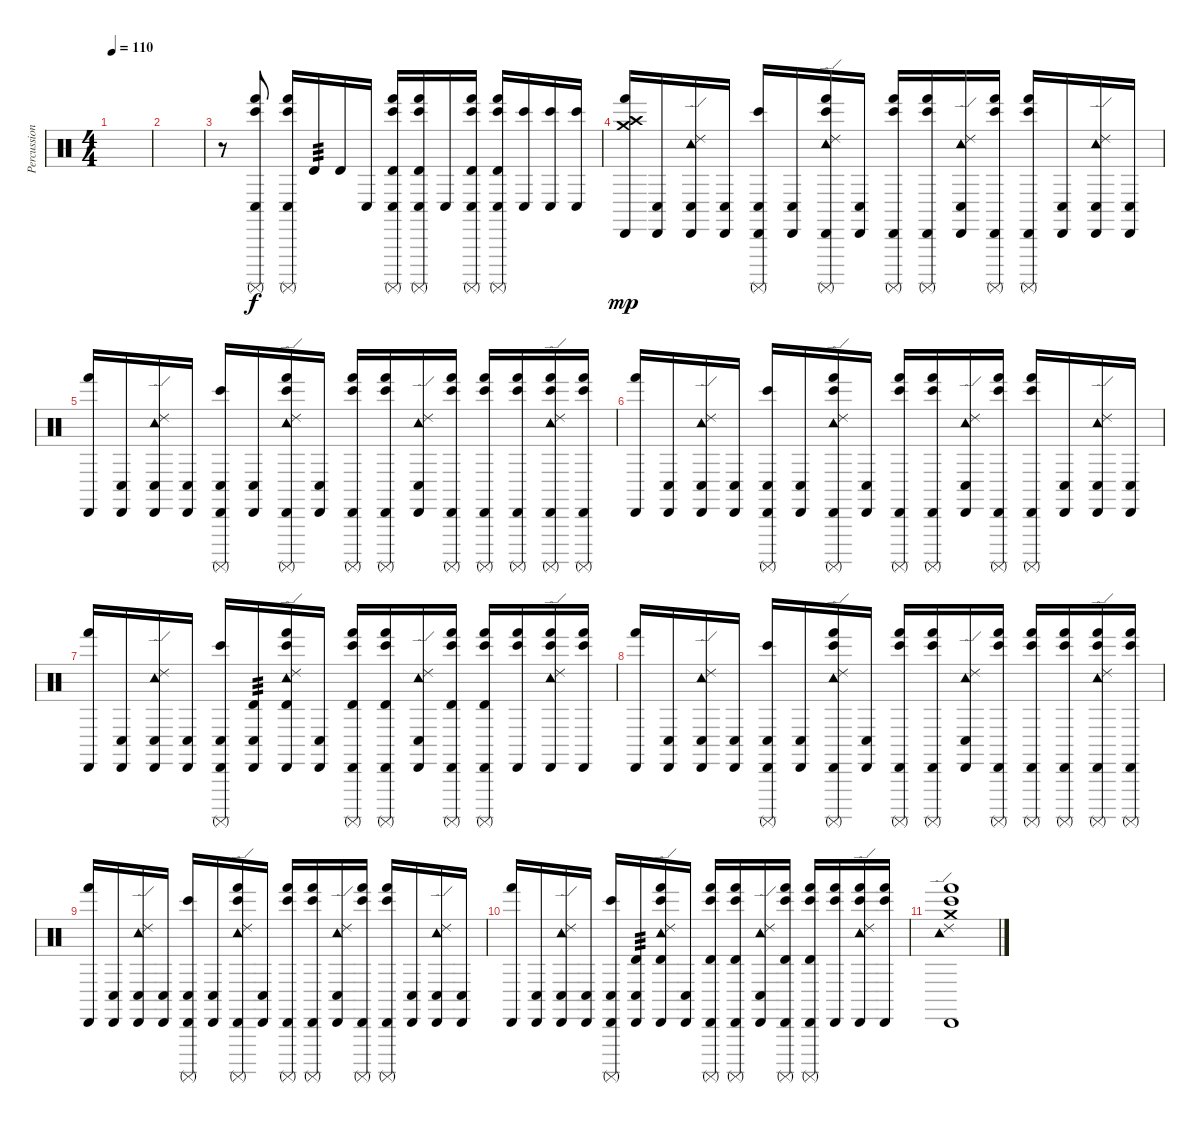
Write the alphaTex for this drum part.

\track ("Percussion" "Percussion") {instrument percussion}
\staff {score}
\articulation defaults
\ts (4 4)
\tempo 110
\clef neutral
\ks c
|
|
r.8 ("Conga low (hit)" "Surdo (mute)" "Bongo High (hit)" "Hand (hit)").8 ("Conga low (hit)" "Surdo (mute)" "Bongo High (hit)" "Hand (hit)").16 "Timbale high (hit)".16{tp 3} "Timbale high (hit)".16 "Conga low (hit)".16 ("Conga low (hit)" "Surdo (mute)" "Timbale high (hit)" "Bongo High (hit)" "Hand (hit)").16 ("Conga low (hit)" "Surdo (mute)" "Timbale high (hit)" "Bongo High (hit)" "Hand (hit)").16 "Conga low (hit)".16 ("Conga low (hit)" "Surdo (mute)" "Timbale high (hit)" "Bongo High (hit)" "Hand (hit)").16 ("Conga low (hit)" "Surdo (mute)" "Timbale high (hit)" "Bongo High (hit)" "Hand (hit)").16 ("Bongo High (hit)" "Conga low (hit)").16 ("Bongo High (hit)" "Conga low (hit)").16 ("Bongo High (hit)" "Conga low (hit)").16 |
("Crash high (hit)" "Crash medium (hit)" "Cabasa (hit)" "Hand (hit)").16{dy mp} ("Cabasa (hit)" "Conga low (hit)").16 ("Tambourine (hit)" "Ride (edge) 2" "Cabasa (hit)" "Conga low (hit)").16 ("Cabasa (hit)" "Conga low (hit)").16 ("Cabasa (hit)" "Surdo (mute)" "Bongo High (hit)" "Conga low (hit)").16 ("Cabasa (hit)" "Conga low (hit)").16 ("Tambourine (hit)" "Ride (edge) 2" "Cabasa (hit)" "Surdo (mute)" "Bongo High (hit)" "Hand (hit)").16 ("Cabasa (hit)" "Conga low (hit)").16 ("Cabasa (hit)" "Surdo (mute)" "Bongo High (hit)" "Hand (hit)").16 ("Cabasa (hit)" "Surdo (mute)" "Bongo High (hit)" "Hand (hit)").16 ("Tambourine (hit)" "Ride (edge) 2" "Cabasa (hit)" "Conga low (hit)").16 ("Cabasa (hit)" "Surdo (mute)" "Bongo High (hit)" "Hand (hit)").16 ("Cabasa (hit)" "Surdo (mute)" "Bongo High (hit)" "Hand (hit)").16 ("Cabasa (hit)" "Conga low (hit)").16 ("Tambourine (hit)" "Ride (edge) 2" "Cabasa (hit)" "Conga low (hit)").16 ("Cabasa (hit)" "Conga low (hit)").16 |
("Cabasa (hit)" "Hand (hit)").16 ("Cabasa (hit)" "Conga low (hit)").16 ("Tambourine (hit)" "Ride (edge) 2" "Cabasa (hit)" "Conga low (hit)").16 ("Cabasa (hit)" "Conga low (hit)").16 ("Cabasa (hit)" "Surdo (mute)" "Bongo High (hit)" "Conga low (hit)").16 ("Cabasa (hit)" "Conga low (hit)").16 ("Tambourine (hit)" "Ride (edge) 2" "Cabasa (hit)" "Surdo (mute)" "Bongo High (hit)" "Hand (hit)").16 ("Cabasa (hit)" "Conga low (hit)").16 ("Cabasa (hit)" "Surdo (mute)" "Bongo High (hit)" "Hand (hit)").16 ("Cabasa (hit)" "Surdo (mute)" "Bongo High (hit)" "Hand (hit)").16 ("Tambourine (hit)" "Ride (edge) 2" "Cabasa (hit)" "Conga low (hit)").16 ("Cabasa (hit)" "Surdo (mute)" "Bongo High (hit)" "Hand (hit)").16 ("Cabasa (hit)" "Surdo (mute)" "Bongo High (hit)" "Hand (hit)").16 ("Cabasa (hit)" "Surdo (mute)" "Bongo High (hit)" "Hand (hit)").16 ("Tambourine (hit)" "Ride (edge) 2" "Cabasa (hit)" "Surdo (mute)" "Bongo High (hit)" "Hand (hit)").16 ("Cabasa (hit)" "Surdo (mute)" "Bongo High (hit)" "Hand (hit)").16 |
("Cabasa (hit)" "Hand (hit)").16 ("Cabasa (hit)" "Conga low (hit)").16 ("Tambourine (hit)" "Ride (edge) 2" "Cabasa (hit)" "Conga low (hit)").16 ("Cabasa (hit)" "Conga low (hit)").16 ("Cabasa (hit)" "Surdo (mute)" "Bongo High (hit)" "Conga low (hit)").16 ("Cabasa (hit)" "Conga low (hit)").16 ("Tambourine (hit)" "Ride (edge) 2" "Cabasa (hit)" "Surdo (mute)" "Bongo High (hit)" "Hand (hit)").16 ("Cabasa (hit)" "Conga low (hit)").16 ("Cabasa (hit)" "Surdo (mute)" "Bongo High (hit)" "Hand (hit)").16 ("Cabasa (hit)" "Surdo (mute)" "Bongo High (hit)" "Hand (hit)").16 ("Tambourine (hit)" "Ride (edge) 2" "Cabasa (hit)" "Conga low (hit)").16 ("Cabasa (hit)" "Surdo (mute)" "Bongo High (hit)" "Hand (hit)").16 ("Cabasa (hit)" "Surdo (mute)" "Bongo High (hit)" "Hand (hit)").16 ("Cabasa (hit)" "Conga low (hit)").16 ("Tambourine (hit)" "Ride (edge) 2" "Cabasa (hit)" "Conga low (hit)").16 ("Cabasa (hit)" "Conga low (hit)").16 |
("Cabasa (hit)" "Hand (hit)").16 ("Cabasa (hit)" "Conga low (hit)").16 ("Tambourine (hit)" "Ride (edge) 2" "Cabasa (hit)" "Conga low (hit)").16 ("Cabasa (hit)" "Conga low (hit)").16 ("Cabasa (hit)" "Surdo (mute)" "Bongo High (hit)" "Conga low (hit)").16 ("Cabasa (hit)" "Timbale high (hit)" "Conga low (hit)").16{tp 3} ("Tambourine (hit)" "Ride (edge) 2" "Cabasa (hit)" "Timbale high (hit)" "Bongo High (hit)" "Hand (hit)").16 ("Cabasa (hit)" "Conga low (hit)").16 ("Surdo (mute)" "Cabasa (hit)" "Timbale high (hit)" "Bongo High (hit)" "Hand (hit)").16 ("Surdo (mute)" "Cabasa (hit)" "Timbale high (hit)" "Bongo High (hit)" "Hand (hit)").16 ("Tambourine (hit)" "Ride (edge) 2" "Cabasa (hit)" "Conga low (hit)").16 ("Surdo (mute)" "Cabasa (hit)" "Timbale high (hit)" "Bongo High (hit)" "Hand (hit)").16 ("Surdo (mute)" "Cabasa (hit)" "Timbale high (hit)" "Bongo High (hit)" "Hand (hit)").16 ("Cabasa (hit)" "Bongo High (hit)" "Hand (hit)").16 ("Tambourine (hit)" "Ride (edge) 2" "Cabasa (hit)" "Bongo High (hit)" "Hand (hit)").16 ("Cabasa (hit)" "Bongo High (hit)" "Hand (hit)").16 |
("Cabasa (hit)" "Hand (hit)").16 ("Cabasa (hit)" "Conga low (hit)").16 ("Tambourine (hit)" "Ride (edge) 2" "Cabasa (hit)" "Conga low (hit)").16 ("Cabasa (hit)" "Conga low (hit)").16 ("Cabasa (hit)" "Surdo (mute)" "Bongo High (hit)" "Conga low (hit)").16 ("Cabasa (hit)" "Conga low (hit)").16 ("Tambourine (hit)" "Ride (edge) 2" "Cabasa (hit)" "Surdo (mute)" "Bongo High (hit)" "Hand (hit)").16 ("Cabasa (hit)" "Conga low (hit)").16 ("Cabasa (hit)" "Surdo (mute)" "Bongo High (hit)" "Hand (hit)").16 ("Cabasa (hit)" "Surdo (mute)" "Bongo High (hit)" "Hand (hit)").16 ("Tambourine (hit)" "Ride (edge) 2" "Cabasa (hit)" "Conga low (hit)").16 ("Cabasa (hit)" "Surdo (mute)" "Bongo High (hit)" "Hand (hit)").16 ("Cabasa (hit)" "Surdo (mute)" "Bongo High (hit)" "Hand (hit)").16 ("Cabasa (hit)" "Surdo (mute)" "Bongo High (hit)" "Hand (hit)").16 ("Tambourine (hit)" "Ride (edge) 2" "Cabasa (hit)" "Surdo (mute)" "Bongo High (hit)" "Hand (hit)").16 ("Cabasa (hit)" "Surdo (mute)" "Bongo High (hit)" "Hand (hit)").16 |
("Cabasa (hit)" "Hand (hit)").16 ("Cabasa (hit)" "Conga low (hit)").16 ("Tambourine (hit)" "Ride (edge) 2" "Cabasa (hit)" "Conga low (hit)").16 ("Cabasa (hit)" "Conga low (hit)").16 ("Cabasa (hit)" "Surdo (mute)" "Bongo High (hit)" "Conga low (hit)").16 ("Cabasa (hit)" "Conga low (hit)").16 ("Tambourine (hit)" "Ride (edge) 2" "Cabasa (hit)" "Surdo (mute)" "Bongo High (hit)" "Hand (hit)").16 ("Cabasa (hit)" "Conga low (hit)").16 ("Cabasa (hit)" "Surdo (mute)" "Bongo High (hit)" "Hand (hit)").16 ("Cabasa (hit)" "Surdo (mute)" "Bongo High (hit)" "Hand (hit)").16 ("Tambourine (hit)" "Ride (edge) 2" "Cabasa (hit)" "Conga low (hit)").16 ("Cabasa (hit)" "Surdo (mute)" "Bongo High (hit)" "Hand (hit)").16 ("Cabasa (hit)" "Surdo (mute)" "Bongo High (hit)" "Hand (hit)").16 ("Cabasa (hit)" "Conga low (hit)").16 ("Tambourine (hit)" "Ride (edge) 2" "Cabasa (hit)" "Conga low (hit)").16 ("Cabasa (hit)" "Conga low (hit)").16 |
("Cabasa (hit)" "Hand (hit)").16 ("Cabasa (hit)" "Conga low (hit)").16 ("Tambourine (hit)" "Ride (edge) 2" "Cabasa (hit)" "Conga low (hit)").16 ("Cabasa (hit)" "Conga low (hit)").16 ("Cabasa (hit)" "Surdo (mute)" "Bongo High (hit)" "Conga low (hit)").16 ("Cabasa (hit)" "Timbale high (hit)" "Conga low (hit)").16{tp 3} ("Tambourine (hit)" "Ride (edge) 2" "Cabasa (hit)" "Timbale high (hit)" "Bongo High (hit)" "Hand (hit)").16 ("Cabasa (hit)" "Conga low (hit)").16 ("Surdo (mute)" "Cabasa (hit)" "Timbale high (hit)" "Bongo High (hit)" "Hand (hit)").16 ("Surdo (mute)" "Cabasa (hit)" "Timbale high (hit)" "Bongo High (hit)" "Hand (hit)").16 ("Tambourine (hit)" "Ride (edge) 2" "Cabasa (hit)" "Conga low (hit)").16 ("Surdo (mute)" "Cabasa (hit)" "Timbale high (hit)" "Bongo High (hit)" "Hand (hit)").16 ("Surdo (mute)" "Cabasa (hit)" "Timbale high (hit)" "Bongo High (hit)" "Hand (hit)").16 ("Cabasa (hit)" "Bongo High (hit)" "Hand (hit)").16 ("Tambourine (hit)" "Ride (edge) 2" "Cabasa (hit)" "Bongo High (hit)" "Hand (hit)").16 ("Cabasa (hit)" "Bongo High (hit)" "Hand (hit)").16 |
("Tambourine (hit)" "Ride (edge) 2" "Cabasa (hit)" "Crash medium (hit)" "Bongo High (hit)" "Hand (hit)").1
